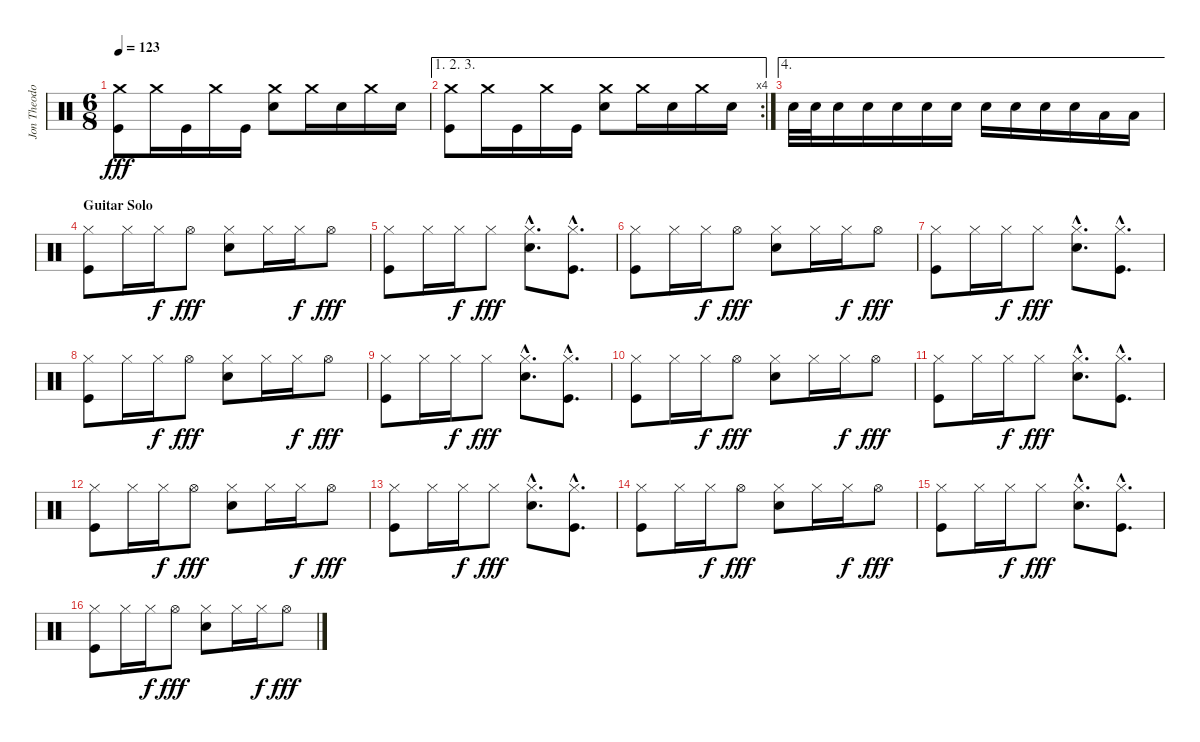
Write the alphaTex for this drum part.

\track ("Jon Theodore - Drums" "Jon Theodo") {instrument percussion}
\staff {score}
\articulation defaults
\ts (6 8)
\tempo 123
\clef neutral
\ks c
("Crash medium (hit)" "Kick (hit)").8{dy fff} "Crash medium (hit)".16 "Kick (hit)".16 "Crash medium (hit)".16 "Kick (hit)".16 ("Crash medium (hit)" "Snare (hit) 2").8 "Crash medium (hit)".16 "Snare (hit) 2".16 "Crash medium (hit)".16 "Snare (hit) 2".16 |
\ae (1 2 3)
\rc 4
("Crash medium (hit)" "Kick (hit)").8 "Crash medium (hit)".16 "Kick (hit)".16 "Crash medium (hit)".16 "Kick (hit)".16 ("Crash medium (hit)" "Snare (hit) 2").8 "Crash medium (hit)".16 "Snare (hit) 2".16 "Crash medium (hit)".16 "Snare (hit) 2".16 |
\ae 4 "Snare (hit) 2".32 "Snare (hit) 2".32 "Snare (hit) 2".16 "Snare (hit) 2".16 "Snare (hit) 2".16 "Snare (hit) 2".16 "Snare (hit) 2".16 "Snare (hit) 2".16 "Snare (hit) 2".16 "Snare (hit) 2".16 "Snare (hit) 2".16 "Low Tom (hit)".16 "Low Tom (hit)".16
|
\section ("" "Guitar Solo")
("Hi-Hat (closed)" "Kick (hit)").8 "Hi-Hat (closed)".16 "Hi-Hat (closed)".16{dy f} "Hi-Hat (open)".8{dy fff} ("Hi-Hat (closed)" "Snare (hit) 2").8 "Hi-Hat (closed)".16 "Hi-Hat (closed)".16{dy f} "Hi-Hat (open)".8{dy fff} |
("Hi-Hat (closed)" "Kick (hit)").8 "Hi-Hat (closed)".16 "Hi-Hat (closed)".16{dy f} "Hi-Hat (closed)".8{dy fff} ("Hi-Hat (closed)"{hac} "Snare (hit) 2"{hac}).8{d} ("Hi-Hat (closed)"{hac} "Kick (hit)"{hac}).8{d} |
("Hi-Hat (closed)" "Kick (hit)").8 "Hi-Hat (closed)".16 "Hi-Hat (closed)".16{dy f} "Hi-Hat (open)".8{dy fff} ("Hi-Hat (closed)" "Snare (hit) 2").8 "Hi-Hat (closed)".16 "Hi-Hat (closed)".16{dy f} "Hi-Hat (open)".8{dy fff} |
("Hi-Hat (closed)" "Kick (hit)").8 "Hi-Hat (closed)".16 "Hi-Hat (closed)".16{dy f} "Hi-Hat (closed)".8{dy fff} ("Hi-Hat (closed)"{hac} "Snare (hit) 2"{hac}).8{d} ("Hi-Hat (closed)"{hac} "Kick (hit)"{hac}).8{d} |
("Hi-Hat (closed)" "Kick (hit)").8 "Hi-Hat (closed)".16 "Hi-Hat (closed)".16{dy f} "Hi-Hat (open)".8{dy fff} ("Hi-Hat (closed)" "Snare (hit) 2").8 "Hi-Hat (closed)".16 "Hi-Hat (closed)".16{dy f} "Hi-Hat (open)".8{dy fff} |
("Hi-Hat (closed)" "Kick (hit)").8 "Hi-Hat (closed)".16 "Hi-Hat (closed)".16{dy f} "Hi-Hat (closed)".8{dy fff} ("Hi-Hat (closed)"{hac} "Snare (hit) 2"{hac}).8{d} ("Hi-Hat (closed)"{hac} "Kick (hit)"{hac}).8{d} |
("Hi-Hat (closed)" "Kick (hit)").8 "Hi-Hat (closed)".16 "Hi-Hat (closed)".16{dy f} "Hi-Hat (open)".8{dy fff} ("Hi-Hat (closed)" "Snare (hit) 2").8 "Hi-Hat (closed)".16 "Hi-Hat (closed)".16{dy f} "Hi-Hat (open)".8{dy fff} |
("Hi-Hat (closed)" "Kick (hit)").8 "Hi-Hat (closed)".16 "Hi-Hat (closed)".16{dy f} "Hi-Hat (closed)".8{dy fff} ("Hi-Hat (closed)"{hac} "Snare (hit) 2"{hac}).8{d} ("Hi-Hat (closed)"{hac} "Kick (hit)"{hac}).8{d} |
("Hi-Hat (closed)" "Kick (hit)").8 "Hi-Hat (closed)".16 "Hi-Hat (closed)".16{dy f} "Hi-Hat (open)".8{dy fff} ("Hi-Hat (closed)" "Snare (hit) 2").8 "Hi-Hat (closed)".16 "Hi-Hat (closed)".16{dy f} "Hi-Hat (open)".8{dy fff} |
("Hi-Hat (closed)" "Kick (hit)").8 "Hi-Hat (closed)".16 "Hi-Hat (closed)".16{dy f} "Hi-Hat (closed)".8{dy fff} ("Hi-Hat (closed)"{hac} "Snare (hit) 2"{hac}).8{d} ("Hi-Hat (closed)"{hac} "Kick (hit)"{hac}).8{d} |
("Hi-Hat (closed)" "Kick (hit)").8 "Hi-Hat (closed)".16 "Hi-Hat (closed)".16{dy f} "Hi-Hat (open)".8{dy fff} ("Hi-Hat (closed)" "Snare (hit) 2").8 "Hi-Hat (closed)".16 "Hi-Hat (closed)".16{dy f} "Hi-Hat (open)".8{dy fff} |
("Hi-Hat (closed)" "Kick (hit)").8 "Hi-Hat (closed)".16 "Hi-Hat (closed)".16{dy f} "Hi-Hat (closed)".8{dy fff} ("Hi-Hat (closed)"{hac} "Snare (hit) 2"{hac}).8{d} ("Hi-Hat (closed)"{hac} "Kick (hit)"{hac}).8{d} |
("Hi-Hat (closed)" "Kick (hit)").8 "Hi-Hat (closed)".16 "Hi-Hat (closed)".16{dy f} "Hi-Hat (open)".8{dy fff} ("Hi-Hat (closed)" "Snare (hit) 2").8 "Hi-Hat (closed)".16 "Hi-Hat (closed)".16{dy f} "Hi-Hat (open)".8{dy fff}
